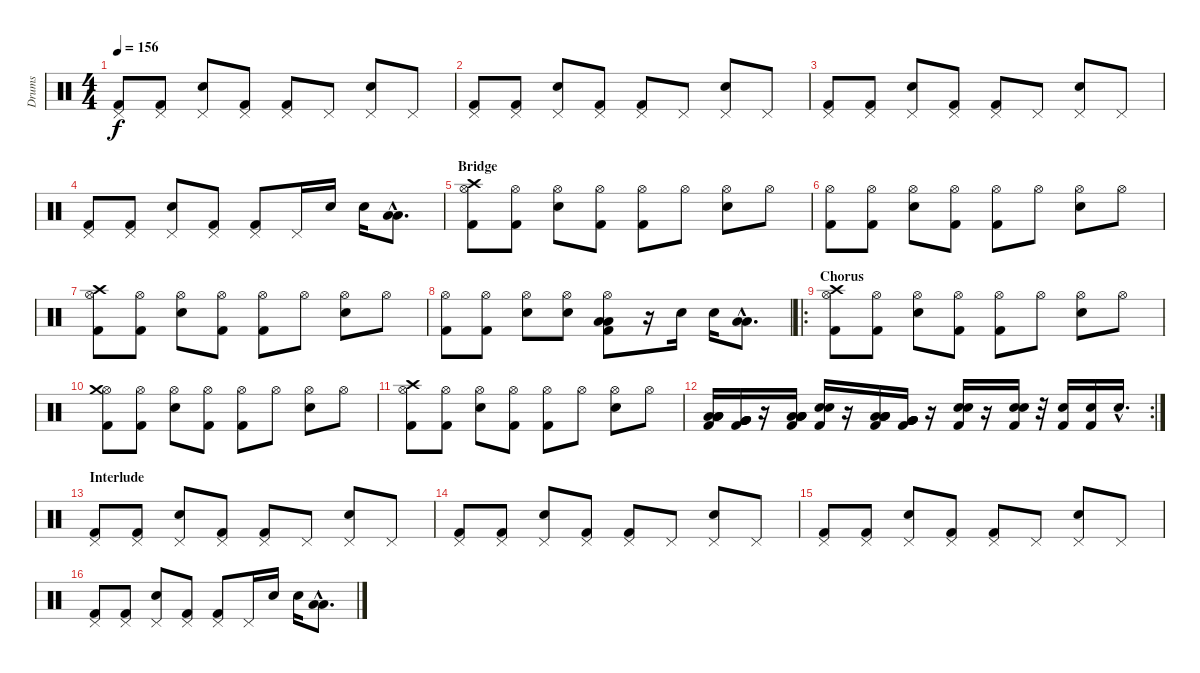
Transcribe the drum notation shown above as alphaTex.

\track ("Drums" "Drums") {instrument percussion}
\staff {score}
\articulation defaults
\ts (4 4)
\tempo 156
\clef neutral
\ks c
("Pedal Hi-Hat (hit)" "Kick (hit) 2").8{dy f} ("Pedal Hi-Hat (hit)" "Kick (hit) 2").8 ("Pedal Hi-Hat (hit)" "Snare (hit) 2").8 ("Pedal Hi-Hat (hit)" "Kick (hit) 2").8 ("Pedal Hi-Hat (hit)" "Kick (hit) 2").8 "Pedal Hi-Hat (hit)".8 ("Pedal Hi-Hat (hit)" "Snare (hit) 2").8 "Pedal Hi-Hat (hit)".8 |
("Pedal Hi-Hat (hit)" "Kick (hit) 2").8 ("Pedal Hi-Hat (hit)" "Kick (hit) 2").8 ("Pedal Hi-Hat (hit)" "Snare (hit) 2").8 ("Pedal Hi-Hat (hit)" "Kick (hit) 2").8 ("Pedal Hi-Hat (hit)" "Kick (hit) 2").8 "Pedal Hi-Hat (hit)".8 ("Pedal Hi-Hat (hit)" "Snare (hit) 2").8 "Pedal Hi-Hat (hit)".8 |
("Pedal Hi-Hat (hit)" "Kick (hit) 2").8 ("Pedal Hi-Hat (hit)" "Kick (hit) 2").8 ("Pedal Hi-Hat (hit)" "Snare (hit) 2").8 ("Pedal Hi-Hat (hit)" "Kick (hit) 2").8 ("Pedal Hi-Hat (hit)" "Kick (hit) 2").8 "Pedal Hi-Hat (hit)".8 ("Pedal Hi-Hat (hit)" "Snare (hit) 2").8 "Pedal Hi-Hat (hit)".8 |
("Pedal Hi-Hat (hit)" "Kick (hit) 2").8 ("Pedal Hi-Hat (hit)" "Kick (hit) 2").8 ("Pedal Hi-Hat (hit)" "Snare (hit) 2").8 ("Pedal Hi-Hat (hit)" "Kick (hit) 2").8 ("Pedal Hi-Hat (hit)" "Kick (hit) 2").8 "Pedal Hi-Hat (hit)".16 "Snare (hit) 2".16 "Snare (hit) 2".16 ("Low Tom (hit)"{hac} "Low Tom (hit)"{hac}).8{d} |
\section ("" "Bridge")
("Hi-Hat (open)" "Kick (hit) 2" "Crash high (hit)").8 ("Hi-Hat (open)" "Kick (hit) 2").8 ("Hi-Hat (open)" "Snare (hit) 2").8 ("Hi-Hat (open)" "Kick (hit) 2").8 ("Hi-Hat (open)" "Kick (hit) 2").8 "Hi-Hat (open)".8 ("Hi-Hat (open)" "Snare (hit) 2").8 "Hi-Hat (open)".8 |
("Hi-Hat (open)" "Kick (hit) 2").8 ("Hi-Hat (open)" "Kick (hit) 2").8 ("Hi-Hat (open)" "Snare (hit) 2").8 ("Hi-Hat (open)" "Kick (hit) 2").8 ("Hi-Hat (open)" "Kick (hit) 2").8 "Hi-Hat (open)".8 ("Hi-Hat (open)" "Snare (hit) 2").8 "Hi-Hat (open)".8 |
("Hi-Hat (open)" "Kick (hit) 2" "Crash high (hit)").8 ("Hi-Hat (open)" "Kick (hit) 2").8 ("Hi-Hat (open)" "Snare (hit) 2").8 ("Hi-Hat (open)" "Kick (hit) 2").8 ("Hi-Hat (open)" "Kick (hit) 2").8 "Hi-Hat (open)".8 ("Hi-Hat (open)" "Snare (hit) 2").8 "Hi-Hat (open)".8 |
("Hi-Hat (open)" "Kick (hit) 2").8 ("Hi-Hat (open)" "Kick (hit) 2").8 ("Hi-Hat (open)" "Snare (hit) 2").8 ("Hi-Hat (open)" "Snare (hit) 2").8 ("Hi-Hat (open)" "Kick (hit) 2" "Low Tom (hit)" "Low Tom (hit)").8 r.16 "Snare (hit) 2".16 "Snare (hit) 2".16 ("Low Tom (hit)"{hac} "Low Tom (hit)"{hac}).8{d} |
\ro
\section ("" "Chorus")
("Hi-Hat (open)" "Kick (hit) 2" "Crash high (hit)").8 ("Hi-Hat (open)" "Kick (hit) 2").8 ("Hi-Hat (open)" "Snare (hit) 2").8 ("Hi-Hat (open)" "Kick (hit) 2").8 ("Hi-Hat (open)" "Kick (hit) 2").8 "Hi-Hat (open)".8 ("Hi-Hat (open)" "Snare (hit) 2").8 "Hi-Hat (open)".8 |
("Hi-Hat (open)" "Kick (hit) 2" "Crash medium (hit)").8 ("Hi-Hat (open)" "Kick (hit) 2").8 ("Hi-Hat (open)" "Snare (hit) 2").8 ("Hi-Hat (open)" "Kick (hit) 2").8 ("Hi-Hat (open)" "Kick (hit) 2").8 "Hi-Hat (open)".8 ("Hi-Hat (open)" "Snare (hit) 2").8 "Hi-Hat (open)".8 |
("Hi-Hat (open)" "Kick (hit) 2" "Crash high (hit)").8 ("Hi-Hat (open)" "Kick (hit) 2").8 ("Hi-Hat (open)" "Snare (hit) 2").8 ("Hi-Hat (open)" "Kick (hit) 2").8 ("Hi-Hat (open)" "Kick (hit) 2").8 "Hi-Hat (open)".8 ("Hi-Hat (open)" "Snare (hit) 2").8 "Hi-Hat (open)".8 |
\rc 2
("Low Tom (hit)" "Low Tom (hit)" "Low Tom (hit)" "Low Tom (hit)" "Kick (hit) 2").16 ("Very Low Tom (hit)" "Very Low Tom (hit)" "Very Low Tom (hit)" "Very Low Tom (hit)" "Kick (hit) 2").16 r.16 ("Low Tom (hit)" "Low Tom (hit)" "Low Tom (hit)" "Low Tom (hit)" "Kick (hit) 2").16 ("Snare (hit) 2" "Snare (hit) 2" "Kick (hit) 2").16 r.16 ("Low Tom (hit)" "Low Tom (hit)" "Low Tom (hit)" "Low Tom (hit)" "Kick (hit) 2").16 ("Very Low Tom (hit)" "Very Low Tom (hit)" "Very Low Tom (hit)" "Very Low Tom (hit)" "Kick (hit) 2").16 r.16 ("Snare (hit) 2" "Snare (hit) 2" "Kick (hit) 2").16 r.16 ("Snare (hit) 2" "Snare (hit) 2" "Kick (hit) 2").16 r.32 ("Snare (hit) 2" "Kick (hit) 2").16 ("Snare (hit) 2" "Kick (hit) 2").16 "Snare (hit) 2"{hac}.16{d} |
\section ("" "Interlude")
("Pedal Hi-Hat (hit)" "Kick (hit) 2").8 ("Pedal Hi-Hat (hit)" "Kick (hit) 2").8 ("Pedal Hi-Hat (hit)" "Snare (hit) 2").8 ("Pedal Hi-Hat (hit)" "Kick (hit) 2").8 ("Pedal Hi-Hat (hit)" "Kick (hit) 2").8 "Pedal Hi-Hat (hit)".8 ("Pedal Hi-Hat (hit)" "Snare (hit) 2").8 "Pedal Hi-Hat (hit)".8 |
("Pedal Hi-Hat (hit)" "Kick (hit) 2").8 ("Pedal Hi-Hat (hit)" "Kick (hit) 2").8 ("Pedal Hi-Hat (hit)" "Snare (hit) 2").8 ("Pedal Hi-Hat (hit)" "Kick (hit) 2").8 ("Pedal Hi-Hat (hit)" "Kick (hit) 2").8 "Pedal Hi-Hat (hit)".8 ("Pedal Hi-Hat (hit)" "Snare (hit) 2").8 "Pedal Hi-Hat (hit)".8 |
("Pedal Hi-Hat (hit)" "Kick (hit) 2").8 ("Pedal Hi-Hat (hit)" "Kick (hit) 2").8 ("Pedal Hi-Hat (hit)" "Snare (hit) 2").8 ("Pedal Hi-Hat (hit)" "Kick (hit) 2").8 ("Pedal Hi-Hat (hit)" "Kick (hit) 2").8 "Pedal Hi-Hat (hit)".8 ("Pedal Hi-Hat (hit)" "Snare (hit) 2").8 "Pedal Hi-Hat (hit)".8 |
("Pedal Hi-Hat (hit)" "Kick (hit) 2").8 ("Pedal Hi-Hat (hit)" "Kick (hit) 2").8 ("Pedal Hi-Hat (hit)" "Snare (hit) 2").8 ("Pedal Hi-Hat (hit)" "Kick (hit) 2").8 ("Pedal Hi-Hat (hit)" "Kick (hit) 2").8 "Pedal Hi-Hat (hit)".16 "Snare (hit) 2".16 "Snare (hit) 2".16 ("Low Tom (hit)"{hac} "Low Tom (hit)"{hac}).8{d}
